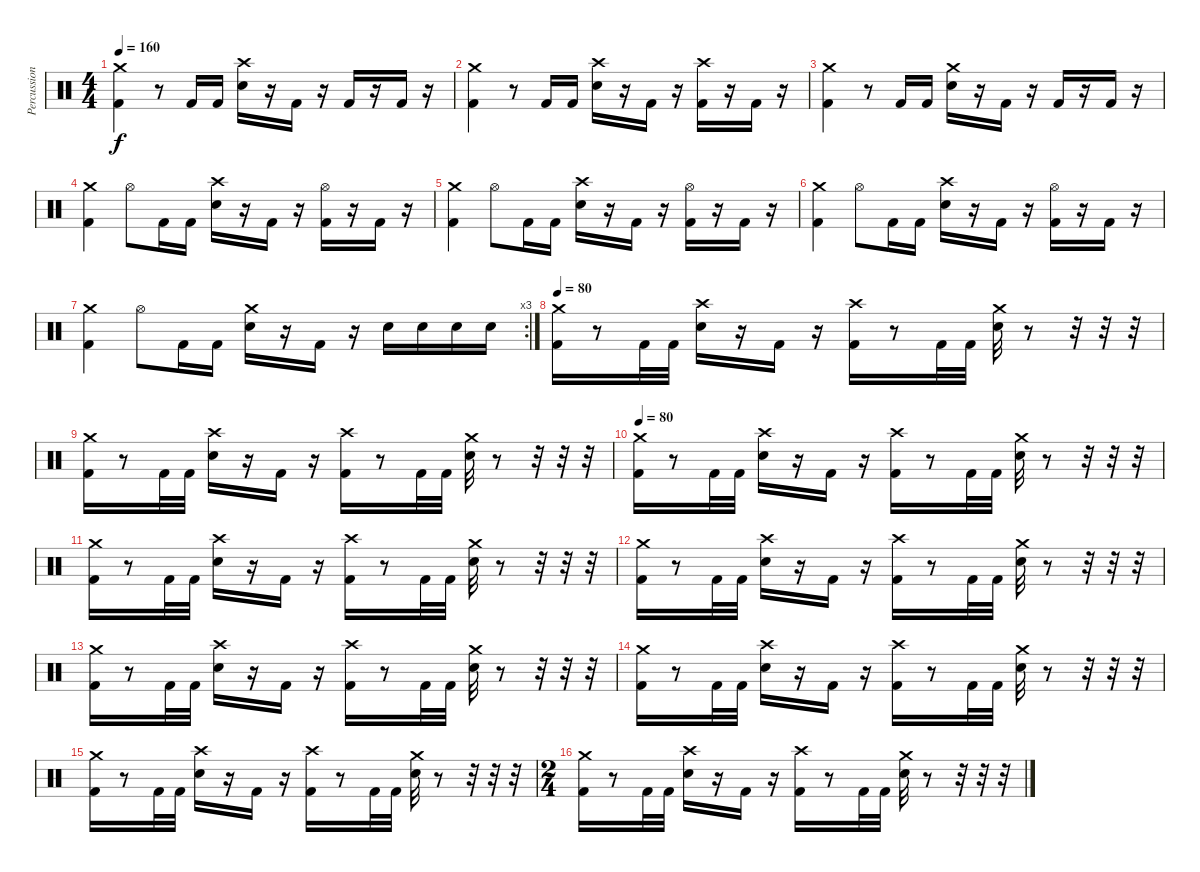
\track ("Percussion" "Percussion") {instrument percussion}
\staff {score}
\articulation defaults
\ts (4 4)
\tempo 160
\clef neutral
\ks c
("Kick (hit) 2" "Crash medium (hit)").4{dy f} r.8 "Kick (hit) 2".16 "Kick (hit) 2".16 ("Crash high (hit)" "Electric Snare (hit)").16 r.16 "Kick (hit) 2".16 r.16 "Kick (hit) 2".16 r.16 "Kick (hit) 2".16 r.16 |
("Kick (hit) 2" "Crash medium (hit)").4 r.8 "Kick (hit) 2".16 "Kick (hit) 2".16 ("Crash high (hit)" "Electric Snare (hit)").16 r.16 "Kick (hit) 2".16 r.16 ("Kick (hit) 2" "Crash high (hit)").16 r.16 "Kick (hit) 2".16 r.16 |
("Kick (hit) 2" "Crash medium (hit)").4 r.8 "Kick (hit) 2".16 "Kick (hit) 2".16 ("Crash medium (hit)" "Electric Snare (hit)").16 r.16 "Kick (hit) 2".16 r.16 "Kick (hit) 2".16 r.16 "Kick (hit) 2".16 r.16 |
("Kick (hit) 2" "Crash medium (hit)").4 "Hi-Hat (open)".8 "Kick (hit) 2".16 "Kick (hit) 2".16 ("Crash high (hit)" "Electric Snare (hit)").16 r.16 "Kick (hit) 2".16 r.16 ("Kick (hit) 2" "Hi-Hat (open)").16 r.16 "Kick (hit) 2".16 r.16 |
("Kick (hit) 2" "Crash medium (hit)").4 "Hi-Hat (open)".8 "Kick (hit) 2".16 "Kick (hit) 2".16 ("Crash high (hit)" "Electric Snare (hit)").16 r.16 "Kick (hit) 2".16 r.16 ("Kick (hit) 2" "Hi-Hat (open)").16 r.16 "Kick (hit) 2".16 r.16 |
("Kick (hit) 2" "Crash medium (hit)").4 "Hi-Hat (open)".8 "Kick (hit) 2".16 "Kick (hit) 2".16 ("Crash high (hit)" "Electric Snare (hit)").16 r.16 "Kick (hit) 2".16 r.16 ("Kick (hit) 2" "Hi-Hat (open)").16 r.16 "Kick (hit) 2".16 r.16 |
\rc 3
("Kick (hit) 2" "Crash medium (hit)").4 "Hi-Hat (open)".8 "Kick (hit) 2".16 "Kick (hit) 2".16 ("Crash medium (hit)" "Electric Snare (hit)").16 r.16 "Kick (hit) 2".16 r.16 "Electric Snare (hit)".16 "Electric Snare (hit)".16 "Electric Snare (hit)".16 "Electric Snare (hit)".16 |
\tempo 80
("Kick (hit) 2" "Crash medium (hit)").16 r.8 "Kick (hit) 2".32 "Kick (hit) 2".32 ("Crash high (hit)" "Electric Snare (hit)").16 r.16 "Kick (hit) 2".16 r.16 ("Kick (hit) 2" "Crash high (hit)").16 r.8 "Kick (hit) 2".32 "Kick (hit) 2".32 ("Electric Snare (hit)" "Crash medium (hit)").32 r.8 r.32 r.32 r.32 |
("Kick (hit) 2" "Crash medium (hit)").16 r.8 "Kick (hit) 2".32 "Kick (hit) 2".32 ("Crash high (hit)" "Electric Snare (hit)").16 r.16 "Kick (hit) 2".16 r.16 ("Kick (hit) 2" "Crash high (hit)").16 r.8 "Kick (hit) 2".32 "Kick (hit) 2".32 ("Electric Snare (hit)" "Crash medium (hit)").32 r.8 r.32 r.32 r.32 |
\tempo 80
("Kick (hit) 2" "Crash medium (hit)").16 r.8 "Kick (hit) 2".32 "Kick (hit) 2".32 ("Crash high (hit)" "Electric Snare (hit)").16 r.16 "Kick (hit) 2".16 r.16 ("Kick (hit) 2" "Crash high (hit)").16 r.8 "Kick (hit) 2".32 "Kick (hit) 2".32 ("Electric Snare (hit)" "Crash medium (hit)").32 r.8 r.32 r.32 r.32 |
("Kick (hit) 2" "Crash medium (hit)").16 r.8 "Kick (hit) 2".32 "Kick (hit) 2".32 ("Crash high (hit)" "Electric Snare (hit)").16 r.16 "Kick (hit) 2".16 r.16 ("Kick (hit) 2" "Crash high (hit)").16 r.8 "Kick (hit) 2".32 "Kick (hit) 2".32 ("Electric Snare (hit)" "Crash medium (hit)").32 r.8 r.32 r.32 r.32 |
("Kick (hit) 2" "Crash medium (hit)").16 r.8 "Kick (hit) 2".32 "Kick (hit) 2".32 ("Crash high (hit)" "Electric Snare (hit)").16 r.16 "Kick (hit) 2".16 r.16 ("Kick (hit) 2" "Crash high (hit)").16 r.8 "Kick (hit) 2".32 "Kick (hit) 2".32 ("Electric Snare (hit)" "Crash medium (hit)").32 r.8 r.32 r.32 r.32 |
("Kick (hit) 2" "Crash medium (hit)").16 r.8 "Kick (hit) 2".32 "Kick (hit) 2".32 ("Crash high (hit)" "Electric Snare (hit)").16 r.16 "Kick (hit) 2".16 r.16 ("Kick (hit) 2" "Crash high (hit)").16 r.8 "Kick (hit) 2".32 "Kick (hit) 2".32 ("Electric Snare (hit)" "Crash medium (hit)").32 r.8 r.32 r.32 r.32 |
("Kick (hit) 2" "Crash medium (hit)").16 r.8 "Kick (hit) 2".32 "Kick (hit) 2".32 ("Crash high (hit)" "Electric Snare (hit)").16 r.16 "Kick (hit) 2".16 r.16 ("Kick (hit) 2" "Crash high (hit)").16 r.8 "Kick (hit) 2".32 "Kick (hit) 2".32 ("Electric Snare (hit)" "Crash medium (hit)").32 r.8 r.32 r.32 r.32 |
("Kick (hit) 2" "Crash medium (hit)").16 r.8 "Kick (hit) 2".32 "Kick (hit) 2".32 ("Crash high (hit)" "Electric Snare (hit)").16 r.16 "Kick (hit) 2".16 r.16 ("Kick (hit) 2" "Crash high (hit)").16 r.8 "Kick (hit) 2".32 "Kick (hit) 2".32 ("Electric Snare (hit)" "Crash medium (hit)").32 r.8 r.32 r.32 r.32 |
\ts (2 4)
("Kick (hit) 2" "Crash medium (hit)").16 r.8 "Kick (hit) 2".32 "Kick (hit) 2".32 ("Crash high (hit)" "Electric Snare (hit)").16 r.16 "Kick (hit) 2".16 r.16 ("Kick (hit) 2" "Crash high (hit)").16 r.8 "Kick (hit) 2".32 "Kick (hit) 2".32 ("Electric Snare (hit)" "Crash medium (hit)").32 r.8 r.32 r.32 r.32
